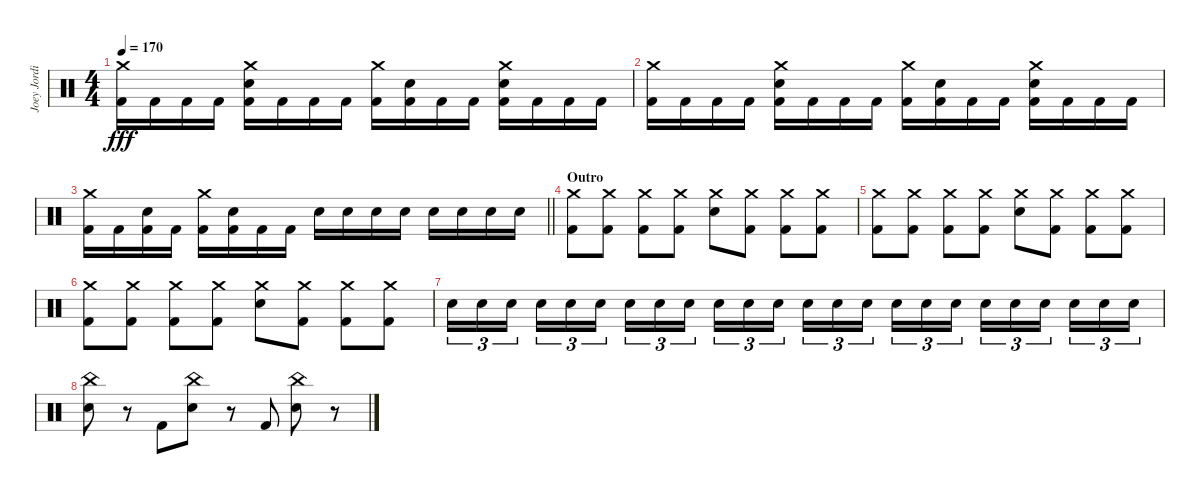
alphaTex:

\track ("Joey Jordison" "Joey Jordi") {instrument percussion}
\staff {score}
\articulation defaults
\ts (4 4)
\tempo 170
\clef neutral
\ks c
("Crash medium (hit)" "Kick (hit) 2").16{dy fff} "Kick (hit) 2".16 "Kick (hit) 2".16 "Kick (hit) 2".16 ("Crash medium (hit)" "Electric Snare (hit)" "Kick (hit) 2").16 "Kick (hit) 2".16 "Kick (hit) 2".16 "Kick (hit) 2".16 ("Crash medium (hit)" "Kick (hit) 2").16 ("Electric Snare (hit)" "Kick (hit) 2").16 "Kick (hit) 2".16 "Kick (hit) 2".16 ("Crash medium (hit)" "Electric Snare (hit)" "Kick (hit) 2").16 "Kick (hit) 2".16 "Kick (hit) 2".16 "Kick (hit) 2".16 |
("Crash medium (hit)" "Kick (hit) 2").16 "Kick (hit) 2".16 "Kick (hit) 2".16 "Kick (hit) 2".16 ("Crash medium (hit)" "Electric Snare (hit)" "Kick (hit) 2").16 "Kick (hit) 2".16 "Kick (hit) 2".16 "Kick (hit) 2".16 ("Crash medium (hit)" "Kick (hit) 2").16 ("Electric Snare (hit)" "Kick (hit) 2").16 "Kick (hit) 2".16 "Kick (hit) 2".16 ("Crash medium (hit)" "Electric Snare (hit)" "Kick (hit) 2").16 "Kick (hit) 2".16 "Kick (hit) 2".16 "Kick (hit) 2".16 |
\barLineRight lightlight
("Crash medium (hit)" "Kick (hit) 2").16 "Kick (hit) 2".16 ("Electric Snare (hit)" "Kick (hit) 2").16 "Kick (hit) 2".16 ("Crash medium (hit)" "Kick (hit) 2").16 ("Electric Snare (hit)" "Kick (hit) 2").16 "Kick (hit) 2".16 "Kick (hit) 2".16 "Electric Snare (hit)".16 "Electric Snare (hit)".16 "Electric Snare (hit)".16 "Electric Snare (hit)".16 "Electric Snare (hit)".16 "Electric Snare (hit)".16 "Electric Snare (hit)".16 "Electric Snare (hit)".16 |
\section ("" "Outro")
("Crash medium (hit)" "Kick (hit) 2").8 ("Crash medium (hit)" "Kick (hit) 2").8 ("Crash medium (hit)" "Kick (hit) 2").8 ("Crash medium (hit)" "Kick (hit) 2").8 ("Crash medium (hit)" "Electric Snare (hit)").8 ("Crash medium (hit)" "Kick (hit) 2").8 ("Crash medium (hit)" "Kick (hit) 2").8 ("Crash medium (hit)" "Kick (hit) 2").8 |
("Crash medium (hit)" "Kick (hit) 2").8 ("Crash medium (hit)" "Kick (hit) 2").8 ("Crash medium (hit)" "Kick (hit) 2").8 ("Crash medium (hit)" "Kick (hit) 2").8 ("Crash medium (hit)" "Electric Snare (hit)").8 ("Crash medium (hit)" "Kick (hit) 2").8 ("Crash medium (hit)" "Kick (hit) 2").8 ("Crash medium (hit)" "Kick (hit) 2").8 |
("Crash medium (hit)" "Kick (hit) 2").8 ("Crash medium (hit)" "Kick (hit) 2").8 ("Crash medium (hit)" "Kick (hit) 2").8 ("Crash medium (hit)" "Kick (hit) 2").8 ("Crash medium (hit)" "Electric Snare (hit)").8 ("Crash medium (hit)" "Kick (hit) 2").8 ("Crash medium (hit)" "Kick (hit) 2").8 ("Crash medium (hit)" "Kick (hit) 2").8 |
"Electric Snare (hit)".16{tu (3 2)} "Electric Snare (hit)".16{tu (3 2)} "Electric Snare (hit)".16{tu (3 2) beam splitsecondary} "Electric Snare (hit)".16{tu (3 2)} "Electric Snare (hit)".16{tu (3 2)} "Electric Snare (hit)".16{tu (3 2)} "Electric Snare (hit)".16{tu (3 2)} "Electric Snare (hit)".16{tu (3 2)} "Electric Snare (hit)".16{tu (3 2) beam splitsecondary} "Electric Snare (hit)".16{tu (3 2)} "Electric Snare (hit)".16{tu (3 2)} "Electric Snare (hit)".16{tu (3 2)} "Electric Snare (hit)".16{tu (3 2)} "Electric Snare (hit)".16{tu (3 2)} "Electric Snare (hit)".16{tu (3 2) beam splitsecondary} "Electric Snare (hit)".16{tu (3 2)} "Electric Snare (hit)".16{tu (3 2)} "Electric Snare (hit)".16{tu (3 2)} "Electric Snare (hit)".16{tu (3 2)} "Electric Snare (hit)".16{tu (3 2)} "Electric Snare (hit)".16{tu (3 2) beam splitsecondary} "Electric Snare (hit)".16{tu (3 2)} "Electric Snare (hit)".16{tu (3 2)} "Electric Snare (hit)".16{tu (3 2)} |
("China (hit)" "Electric Snare (hit)").8 r.8 "Kick (hit) 2".8 ("China (hit)" "Electric Snare (hit)").8 r.8 "Kick (hit) 2".8 ("China (hit)" "Electric Snare (hit)").8 r.8
